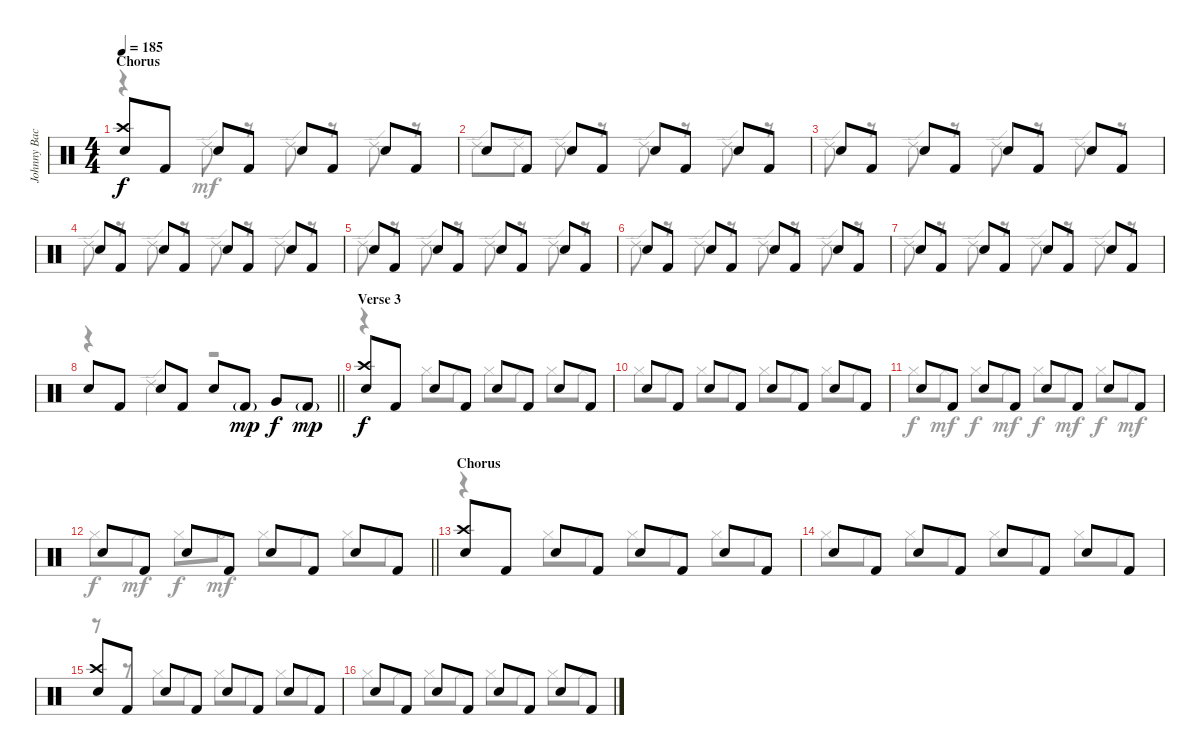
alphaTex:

\track ("Johnny Backbeat" "Johnny Bac") {instrument percussion}
\staff {score}
\articulation defaults
\voice
\ts (4 4)
\section ("" "Chorus")
\tempo 185
\clef neutral
\ks c
("Crash high (hit)" "Electric Snare (hit)").8{dy f} "Kick (hit) 2".8 "Electric Snare (hit)".8 "Kick (hit) 2".8 "Electric Snare (hit)".8 "Kick (hit) 2".8 "Electric Snare (hit)".8 "Kick (hit) 2".8 |
"Electric Snare (hit)".8 "Kick (hit) 2".8 "Electric Snare (hit)".8 "Kick (hit) 2".8 "Electric Snare (hit)".8 "Kick (hit) 2".8 "Electric Snare (hit)".8 "Kick (hit) 2".8 |
"Electric Snare (hit)".8 "Kick (hit) 2".8 "Electric Snare (hit)".8 "Kick (hit) 2".8 "Electric Snare (hit)".8 "Kick (hit) 2".8 "Electric Snare (hit)".8 "Kick (hit) 2".8 |
"Electric Snare (hit)".8 "Kick (hit) 2".8 "Electric Snare (hit)".8 "Kick (hit) 2".8 "Electric Snare (hit)".8 "Kick (hit) 2".8 "Electric Snare (hit)".8 "Kick (hit) 2".8 |
"Electric Snare (hit)".8 "Kick (hit) 2".8 "Electric Snare (hit)".8 "Kick (hit) 2".8 "Electric Snare (hit)".8 "Kick (hit) 2".8 "Electric Snare (hit)".8 "Kick (hit) 2".8 |
"Electric Snare (hit)".8 "Kick (hit) 2".8 "Electric Snare (hit)".8 "Kick (hit) 2".8 "Electric Snare (hit)".8 "Kick (hit) 2".8 "Electric Snare (hit)".8 "Kick (hit) 2".8 |
"Electric Snare (hit)".8 "Kick (hit) 2".8 "Electric Snare (hit)".8 "Kick (hit) 2".8 "Electric Snare (hit)".8 "Kick (hit) 2".8 "Electric Snare (hit)".8 "Kick (hit) 2".8 |
\barLineRight lightlight "Electric Snare (hit)".8 "Kick (hit) 2".8 "Electric Snare (hit)".8 "Kick (hit) 2".8 "Electric Snare (hit)".8 "Kick (hit) 2"{g}.8{dy mp} "Very Low Tom (hit)".8{dy f} "Kick (hit) 2"{g}.8{dy mp}
|
\section ("" "Verse 3")
("Crash high (hit)" "Electric Snare (hit)").8{dy f} "Kick (hit) 2".8 "Electric Snare (hit)".8 "Kick (hit) 2".8 "Electric Snare (hit)".8 "Kick (hit) 2".8 "Electric Snare (hit)".8 "Kick (hit) 2".8 |
"Electric Snare (hit)".8 "Kick (hit) 2".8 "Electric Snare (hit)".8 "Kick (hit) 2".8 "Electric Snare (hit)".8 "Kick (hit) 2".8 "Electric Snare (hit)".8 "Kick (hit) 2".8 |
"Electric Snare (hit)".8 "Kick (hit) 2".8 "Electric Snare (hit)".8 "Kick (hit) 2".8 "Electric Snare (hit)".8 "Kick (hit) 2".8 "Electric Snare (hit)".8 "Kick (hit) 2".8 |
\barLineRight lightlight "Electric Snare (hit)".8 "Kick (hit) 2".8 "Electric Snare (hit)".8 "Kick (hit) 2".8 "Electric Snare (hit)".8 "Kick (hit) 2".8 "Electric Snare (hit)".8 "Kick (hit) 2".8
|
\section ("" "Chorus")
("Crash high (hit)" "Electric Snare (hit)").8 "Kick (hit) 2".8 "Electric Snare (hit)".8 "Kick (hit) 2".8 "Electric Snare (hit)".8 "Kick (hit) 2".8 "Electric Snare (hit)".8 "Kick (hit) 2".8 |
"Electric Snare (hit)".8 "Kick (hit) 2".8 "Electric Snare (hit)".8 "Kick (hit) 2".8 "Electric Snare (hit)".8 "Kick (hit) 2".8 "Electric Snare (hit)".8 "Kick (hit) 2".8 |
("Crash high (hit)" "Electric Snare (hit)").8 "Kick (hit) 2".8 "Electric Snare (hit)".8 "Kick (hit) 2".8 "Electric Snare (hit)".8 "Kick (hit) 2".8 "Electric Snare (hit)".8 "Kick (hit) 2".8 |
"Electric Snare (hit)".8 "Kick (hit) 2".8 "Electric Snare (hit)".8 "Kick (hit) 2".8 "Electric Snare (hit)".8 "Kick (hit) 2".8 "Electric Snare (hit)".8 "Kick (hit) 2".8
\voice
\clef neutral
\ottava regular
\simile none
\ks c
r.4{dy mf} "Ride (edge) 2".8 r.8 "Ride (edge) 2".8 r.8 "Ride (edge) 2".8 r.8 |
"Ride (edge) 2".8 "Ride (edge) 2".8 "Ride (edge) 2".8 r.8 "Ride (edge) 2".8 r.8 "Ride (edge) 2".8 r.8 |
"Ride (edge) 2".8 r.8 "Ride (edge) 2".8 r.8 "Ride (edge) 2".8 r.8 "Ride (edge) 2".8 r.8 |
"Ride (edge) 2".8 r.8 "Ride (edge) 2".8 r.8 "Ride (edge) 2".8 r.8 "Ride (edge) 2".8 r.8 |
"Ride (edge) 2".8 r.8 "Ride (edge) 2".8 r.8 "Ride (edge) 2".8 r.8 "Ride (edge) 2".8 r.8 |
"Ride (edge) 2".8 r.8 "Ride (edge) 2".8 r.8 "Ride (edge) 2".8 r.8 "Ride (edge) 2".8 r.8 |
"Ride (edge) 2".8 r.8 "Ride (edge) 2".8 r.8 "Ride (edge) 2".8 r.8 "Ride (edge) 2".8 r.8 |
\barLineRight lightlight
r.4 "Ride (edge) 2".4 r.2 |
r.4 "Hi-Hat (closed)".8 "Hi-Hat (closed)".8 "Hi-Hat (closed)".8 "Hi-Hat (closed)".8 "Hi-Hat (closed)".8 "Hi-Hat (closed)".8 |
"Hi-Hat (closed)".8 "Hi-Hat (closed)".8 "Hi-Hat (closed)".8 "Hi-Hat (closed)".8 "Hi-Hat (closed)".8 "Hi-Hat (closed)".8 "Hi-Hat (closed)".8 "Hi-Hat (closed)".8 |
"Hi-Hat (closed)".8{dy f} "Hi-Hat (closed)".8{dy mf} "Hi-Hat (closed)".8{dy f} "Hi-Hat (closed)".8{dy mf} "Hi-Hat (closed)".8{dy f} "Hi-Hat (closed)".8{dy mf} "Hi-Hat (closed)".8{dy f} "Hi-Hat (closed)".8{dy mf} |
\barLineRight lightlight "Hi-Hat (closed)".8{dy f} "Hi-Hat (closed)".8{dy mf} "Hi-Hat (closed)".8{dy f} "Hi-Hat (open)".8{dy mf} "Hi-Hat (closed)".8 "Hi-Hat (closed)".8 "Hi-Hat (closed)".8 "Hi-Hat (closed)".8
|
r.4 "Hi-Hat (closed)".8 "Hi-Hat (closed)".8 "Hi-Hat (closed)".8 "Hi-Hat (closed)".8 "Hi-Hat (closed)".8 "Hi-Hat (closed)".8 |
"Hi-Hat (closed)".8 "Hi-Hat (closed)".8 "Hi-Hat (closed)".8 "Hi-Hat (closed)".8 "Hi-Hat (closed)".8 "Hi-Hat (closed)".8 "Hi-Hat (closed)".8 "Hi-Hat (closed)".8 |
r.8 r.8 "Hi-Hat (closed)".8 "Hi-Hat (closed)".8 "Hi-Hat (closed)".8 "Hi-Hat (closed)".8 "Hi-Hat (closed)".8 "Hi-Hat (closed)".8 |
"Hi-Hat (closed)".8 "Hi-Hat (closed)".8 "Hi-Hat (closed)".8 "Hi-Hat (closed)".8 "Hi-Hat (closed)".8 "Hi-Hat (closed)".8 "Hi-Hat (closed)".8 "Hi-Hat (closed)".8
